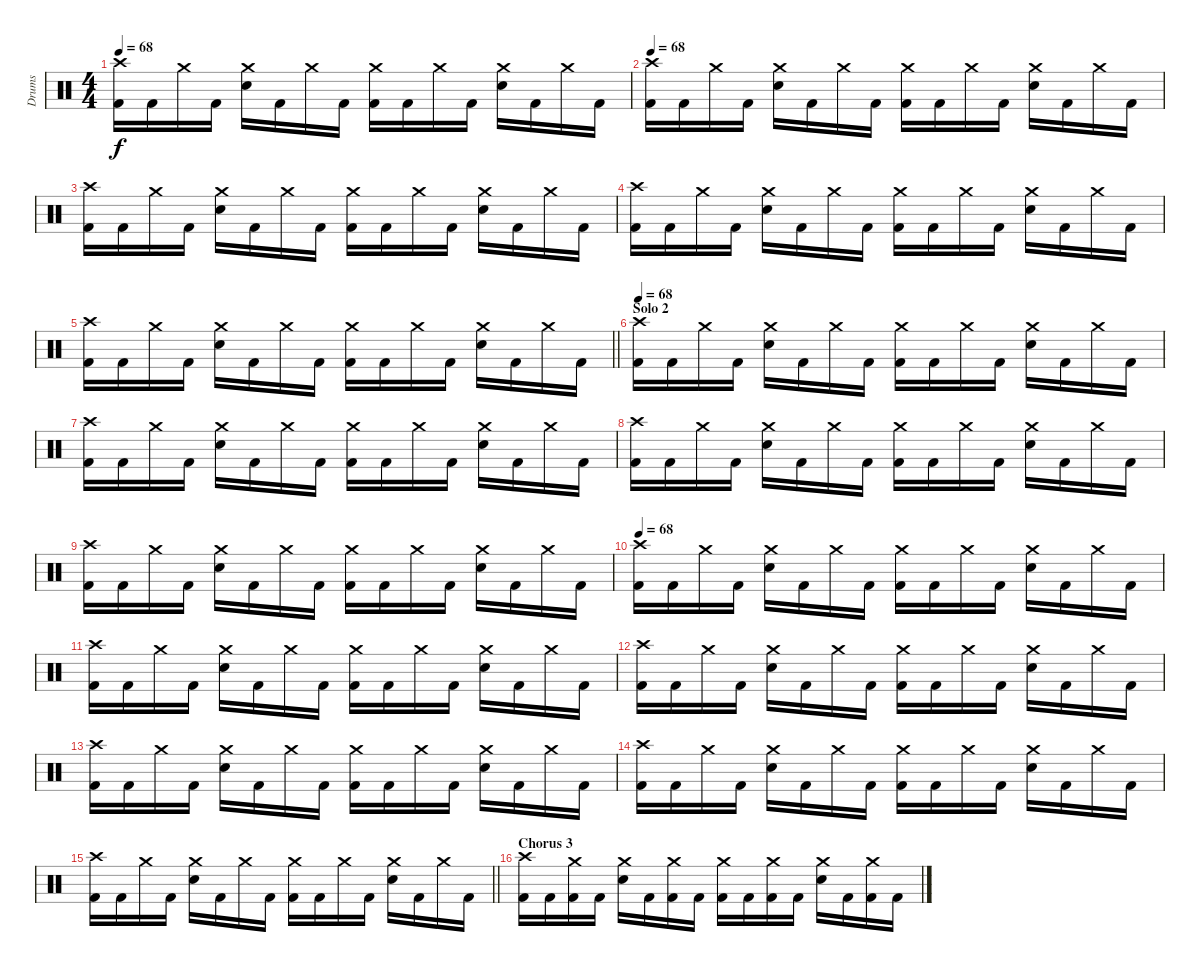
\track ("Drums" "Drums") {instrument percussion}
\staff {score}
\articulation defaults
\ts (4 4)
\tempo 68
\clef neutral
\ks c
("Crash high (hit)" "Kick (hit) 2").16{dy f} "Kick (hit) 2".16 "Crash medium (hit)".16 "Kick (hit) 2".16 ("Crash medium (hit)" "Electric Snare (hit)").16 "Kick (hit) 2".16 "Crash medium (hit)".16 "Kick (hit) 2".16 ("Crash medium (hit)" "Kick (hit) 2").16 "Kick (hit) 2".16 "Crash medium (hit)".16 "Kick (hit) 2".16 ("Crash medium (hit)" "Electric Snare (hit)").16 "Kick (hit) 2".16 "Crash medium (hit)".16 "Kick (hit) 2".16 |
\tempo 68
("Crash high (hit)" "Kick (hit) 2").16 "Kick (hit) 2".16 "Crash medium (hit)".16 "Kick (hit) 2".16 ("Crash medium (hit)" "Electric Snare (hit)").16 "Kick (hit) 2".16 "Crash medium (hit)".16 "Kick (hit) 2".16 ("Crash medium (hit)" "Kick (hit) 2").16 "Kick (hit) 2".16 "Crash medium (hit)".16 "Kick (hit) 2".16 ("Crash medium (hit)" "Electric Snare (hit)").16 "Kick (hit) 2".16 "Crash medium (hit)".16 "Kick (hit) 2".16 |
("Crash high (hit)" "Kick (hit) 2").16 "Kick (hit) 2".16 "Crash medium (hit)".16 "Kick (hit) 2".16 ("Crash medium (hit)" "Electric Snare (hit)").16 "Kick (hit) 2".16 "Crash medium (hit)".16 "Kick (hit) 2".16 ("Crash medium (hit)" "Kick (hit) 2").16 "Kick (hit) 2".16 "Crash medium (hit)".16 "Kick (hit) 2".16 ("Crash medium (hit)" "Electric Snare (hit)").16 "Kick (hit) 2".16 "Crash medium (hit)".16 "Kick (hit) 2".16 |
("Crash high (hit)" "Kick (hit) 2").16 "Kick (hit) 2".16 "Crash medium (hit)".16 "Kick (hit) 2".16 ("Crash medium (hit)" "Electric Snare (hit)").16 "Kick (hit) 2".16 "Crash medium (hit)".16 "Kick (hit) 2".16 ("Crash medium (hit)" "Kick (hit) 2").16 "Kick (hit) 2".16 "Crash medium (hit)".16 "Kick (hit) 2".16 ("Crash medium (hit)" "Electric Snare (hit)").16 "Kick (hit) 2".16 "Crash medium (hit)".16 "Kick (hit) 2".16 |
\barLineRight lightlight
("Crash high (hit)" "Kick (hit) 2").16 "Kick (hit) 2".16 "Crash medium (hit)".16 "Kick (hit) 2".16 ("Crash medium (hit)" "Electric Snare (hit)").16 "Kick (hit) 2".16 "Crash medium (hit)".16 "Kick (hit) 2".16 ("Crash medium (hit)" "Kick (hit) 2").16 "Kick (hit) 2".16 "Crash medium (hit)".16 "Kick (hit) 2".16 ("Crash medium (hit)" "Electric Snare (hit)").16 "Kick (hit) 2".16 "Crash medium (hit)".16 "Kick (hit) 2".16 |
\section ("" "Solo 2")
\tempo 68
("Crash high (hit)" "Kick (hit) 2").16 "Kick (hit) 2".16 "Crash medium (hit)".16 "Kick (hit) 2".16 ("Crash medium (hit)" "Electric Snare (hit)").16 "Kick (hit) 2".16 "Crash medium (hit)".16 "Kick (hit) 2".16 ("Crash medium (hit)" "Kick (hit) 2").16 "Kick (hit) 2".16 "Crash medium (hit)".16 "Kick (hit) 2".16 ("Crash medium (hit)" "Electric Snare (hit)").16 "Kick (hit) 2".16 "Crash medium (hit)".16 "Kick (hit) 2".16 |
("Crash high (hit)" "Kick (hit) 2").16 "Kick (hit) 2".16 "Crash medium (hit)".16 "Kick (hit) 2".16 ("Crash medium (hit)" "Electric Snare (hit)").16 "Kick (hit) 2".16 "Crash medium (hit)".16 "Kick (hit) 2".16 ("Crash medium (hit)" "Kick (hit) 2").16 "Kick (hit) 2".16 "Crash medium (hit)".16 "Kick (hit) 2".16 ("Crash medium (hit)" "Electric Snare (hit)").16 "Kick (hit) 2".16 "Crash medium (hit)".16 "Kick (hit) 2".16 |
("Crash high (hit)" "Kick (hit) 2").16 "Kick (hit) 2".16 "Crash medium (hit)".16 "Kick (hit) 2".16 ("Crash medium (hit)" "Electric Snare (hit)").16 "Kick (hit) 2".16 "Crash medium (hit)".16 "Kick (hit) 2".16 ("Crash medium (hit)" "Kick (hit) 2").16 "Kick (hit) 2".16 "Crash medium (hit)".16 "Kick (hit) 2".16 ("Crash medium (hit)" "Electric Snare (hit)").16 "Kick (hit) 2".16 "Crash medium (hit)".16 "Kick (hit) 2".16 |
("Crash high (hit)" "Kick (hit) 2").16 "Kick (hit) 2".16 "Crash medium (hit)".16 "Kick (hit) 2".16 ("Crash medium (hit)" "Electric Snare (hit)").16 "Kick (hit) 2".16 "Crash medium (hit)".16 "Kick (hit) 2".16 ("Crash medium (hit)" "Kick (hit) 2").16 "Kick (hit) 2".16 "Crash medium (hit)".16 "Kick (hit) 2".16 ("Crash medium (hit)" "Electric Snare (hit)").16 "Kick (hit) 2".16 "Crash medium (hit)".16 "Kick (hit) 2".16 |
\tempo 68
("Crash high (hit)" "Kick (hit) 2").16 "Kick (hit) 2".16 "Crash medium (hit)".16 "Kick (hit) 2".16 ("Crash medium (hit)" "Electric Snare (hit)").16 "Kick (hit) 2".16 "Crash medium (hit)".16 "Kick (hit) 2".16 ("Crash medium (hit)" "Kick (hit) 2").16 "Kick (hit) 2".16 "Crash medium (hit)".16 "Kick (hit) 2".16 ("Crash medium (hit)" "Electric Snare (hit)").16 "Kick (hit) 2".16 "Crash medium (hit)".16 "Kick (hit) 2".16 |
("Crash high (hit)" "Kick (hit) 2").16 "Kick (hit) 2".16 "Crash medium (hit)".16 "Kick (hit) 2".16 ("Crash medium (hit)" "Electric Snare (hit)").16 "Kick (hit) 2".16 "Crash medium (hit)".16 "Kick (hit) 2".16 ("Crash medium (hit)" "Kick (hit) 2").16 "Kick (hit) 2".16 "Crash medium (hit)".16 "Kick (hit) 2".16 ("Crash medium (hit)" "Electric Snare (hit)").16 "Kick (hit) 2".16 "Crash medium (hit)".16 "Kick (hit) 2".16 |
("Crash high (hit)" "Kick (hit) 2").16 "Kick (hit) 2".16 "Crash medium (hit)".16 "Kick (hit) 2".16 ("Crash medium (hit)" "Electric Snare (hit)").16 "Kick (hit) 2".16 "Crash medium (hit)".16 "Kick (hit) 2".16 ("Crash medium (hit)" "Kick (hit) 2").16 "Kick (hit) 2".16 "Crash medium (hit)".16 "Kick (hit) 2".16 ("Crash medium (hit)" "Electric Snare (hit)").16 "Kick (hit) 2".16 "Crash medium (hit)".16 "Kick (hit) 2".16 |
("Crash high (hit)" "Kick (hit) 2").16 "Kick (hit) 2".16 "Crash medium (hit)".16 "Kick (hit) 2".16 ("Crash medium (hit)" "Electric Snare (hit)").16 "Kick (hit) 2".16 "Crash medium (hit)".16 "Kick (hit) 2".16 ("Crash medium (hit)" "Kick (hit) 2").16 "Kick (hit) 2".16 "Crash medium (hit)".16 "Kick (hit) 2".16 ("Crash medium (hit)" "Electric Snare (hit)").16 "Kick (hit) 2".16 "Crash medium (hit)".16 "Kick (hit) 2".16 |
("Crash high (hit)" "Kick (hit) 2").16 "Kick (hit) 2".16 "Crash medium (hit)".16 "Kick (hit) 2".16 ("Crash medium (hit)" "Electric Snare (hit)").16 "Kick (hit) 2".16 "Crash medium (hit)".16 "Kick (hit) 2".16 ("Crash medium (hit)" "Kick (hit) 2").16 "Kick (hit) 2".16 "Crash medium (hit)".16 "Kick (hit) 2".16 ("Crash medium (hit)" "Electric Snare (hit)").16 "Kick (hit) 2".16 "Crash medium (hit)".16 "Kick (hit) 2".16 |
\barLineRight lightlight
("Crash high (hit)" "Kick (hit) 2").16 "Kick (hit) 2".16 "Crash medium (hit)".16 "Kick (hit) 2".16 ("Crash medium (hit)" "Electric Snare (hit)").16 "Kick (hit) 2".16 "Crash medium (hit)".16 "Kick (hit) 2".16 ("Crash medium (hit)" "Kick (hit) 2").16 "Kick (hit) 2".16 "Crash medium (hit)".16 "Kick (hit) 2".16 ("Crash medium (hit)" "Electric Snare (hit)").16 "Kick (hit) 2".16 "Crash medium (hit)".16 "Kick (hit) 2".16 |
\section ("" "Chorus 3")
("Crash high (hit)" "Kick (hit) 2").16 "Kick (hit) 2".16 ("Crash medium (hit)" "Kick (hit) 2").16 "Kick (hit) 2".16 ("Crash medium (hit)" "Electric Snare (hit)").16 "Kick (hit) 2".16 ("Crash medium (hit)" "Kick (hit) 2").16 "Kick (hit) 2".16 ("Crash medium (hit)" "Kick (hit) 2").16 "Kick (hit) 2".16 ("Crash medium (hit)" "Kick (hit) 2").16 "Kick (hit) 2".16 ("Crash medium (hit)" "Electric Snare (hit)").16 "Kick (hit) 2".16 ("Crash medium (hit)" "Kick (hit) 2").16 "Kick (hit) 2".16
